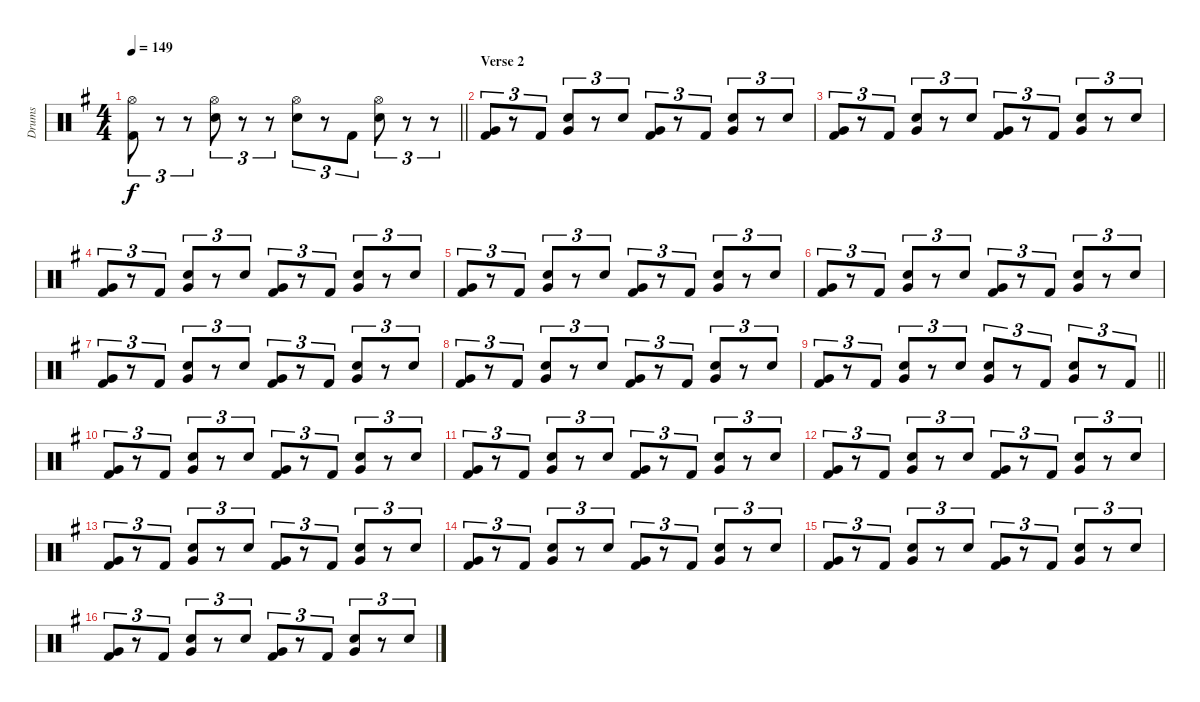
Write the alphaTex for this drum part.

\track ("Drums" "Drums") {instrument percussion}
\staff {score}
\articulation defaults
\ts (4 4)
\tempo 149
\clef neutral
\barLineRight lightlight
\ks g
("Hi-Hat (open)" "Kick (hit) 2").8{tu (3 2) dy f} r.8{tu (3 2)} r.8{tu (3 2)} ("Hi-Hat (open)" "Electric Snare (hit)").8{tu (3 2)} r.8{tu (3 2)} r.8{tu (3 2)} ("Hi-Hat (open)" "Electric Snare (hit)").8{tu (3 2)} r.8{tu (3 2)} "Kick (hit) 2".8{tu (3 2)} ("Hi-Hat (open)" "Electric Snare (hit)").8{tu (3 2)} r.8{tu (3 2)} r.8{tu (3 2)} |
\section ("" "Verse 2")
("Very Low Tom (hit)" "Kick (hit) 2").8{tu (3 2)} r.8{tu (3 2)} "Kick (hit) 2".8{tu (3 2)} ("Electric Snare (hit)" "Very Low Tom (hit)").8{tu (3 2)} r.8{tu (3 2)} "Electric Snare (hit)".8{tu (3 2)} ("Very Low Tom (hit)" "Kick (hit) 2").8{tu (3 2)} r.8{tu (3 2)} "Kick (hit) 2".8{tu (3 2)} ("Electric Snare (hit)" "Very Low Tom (hit)").8{tu (3 2)} r.8{tu (3 2)} "Electric Snare (hit)".8{tu (3 2)} |
("Very Low Tom (hit)" "Kick (hit) 2").8{tu (3 2)} r.8{tu (3 2)} "Kick (hit) 2".8{tu (3 2)} ("Electric Snare (hit)" "Very Low Tom (hit)").8{tu (3 2)} r.8{tu (3 2)} "Electric Snare (hit)".8{tu (3 2)} ("Very Low Tom (hit)" "Kick (hit) 2").8{tu (3 2)} r.8{tu (3 2)} "Kick (hit) 2".8{tu (3 2)} ("Electric Snare (hit)" "Very Low Tom (hit)").8{tu (3 2)} r.8{tu (3 2)} "Electric Snare (hit)".8{tu (3 2)} |
("Very Low Tom (hit)" "Kick (hit) 2").8{tu (3 2)} r.8{tu (3 2)} "Kick (hit) 2".8{tu (3 2)} ("Electric Snare (hit)" "Very Low Tom (hit)").8{tu (3 2)} r.8{tu (3 2)} "Electric Snare (hit)".8{tu (3 2)} ("Very Low Tom (hit)" "Kick (hit) 2").8{tu (3 2)} r.8{tu (3 2)} "Kick (hit) 2".8{tu (3 2)} ("Electric Snare (hit)" "Very Low Tom (hit)").8{tu (3 2)} r.8{tu (3 2)} "Electric Snare (hit)".8{tu (3 2)} |
("Very Low Tom (hit)" "Kick (hit) 2").8{tu (3 2)} r.8{tu (3 2)} "Kick (hit) 2".8{tu (3 2)} ("Electric Snare (hit)" "Very Low Tom (hit)").8{tu (3 2)} r.8{tu (3 2)} "Electric Snare (hit)".8{tu (3 2)} ("Very Low Tom (hit)" "Kick (hit) 2").8{tu (3 2)} r.8{tu (3 2)} "Kick (hit) 2".8{tu (3 2)} ("Electric Snare (hit)" "Very Low Tom (hit)").8{tu (3 2)} r.8{tu (3 2)} "Electric Snare (hit)".8{tu (3 2)} |
("Very Low Tom (hit)" "Kick (hit) 2").8{tu (3 2)} r.8{tu (3 2)} "Kick (hit) 2".8{tu (3 2)} ("Electric Snare (hit)" "Very Low Tom (hit)").8{tu (3 2)} r.8{tu (3 2)} "Electric Snare (hit)".8{tu (3 2)} ("Very Low Tom (hit)" "Kick (hit) 2").8{tu (3 2)} r.8{tu (3 2)} "Kick (hit) 2".8{tu (3 2)} ("Electric Snare (hit)" "Very Low Tom (hit)").8{tu (3 2)} r.8{tu (3 2)} "Electric Snare (hit)".8{tu (3 2)} |
("Very Low Tom (hit)" "Kick (hit) 2").8{tu (3 2)} r.8{tu (3 2)} "Kick (hit) 2".8{tu (3 2)} ("Electric Snare (hit)" "Very Low Tom (hit)").8{tu (3 2)} r.8{tu (3 2)} "Electric Snare (hit)".8{tu (3 2)} ("Very Low Tom (hit)" "Kick (hit) 2").8{tu (3 2)} r.8{tu (3 2)} "Kick (hit) 2".8{tu (3 2)} ("Electric Snare (hit)" "Very Low Tom (hit)").8{tu (3 2)} r.8{tu (3 2)} "Electric Snare (hit)".8{tu (3 2)} |
("Very Low Tom (hit)" "Kick (hit) 2").8{tu (3 2)} r.8{tu (3 2)} "Kick (hit) 2".8{tu (3 2)} ("Electric Snare (hit)" "Very Low Tom (hit)").8{tu (3 2)} r.8{tu (3 2)} "Electric Snare (hit)".8{tu (3 2)} ("Very Low Tom (hit)" "Kick (hit) 2").8{tu (3 2)} r.8{tu (3 2)} "Kick (hit) 2".8{tu (3 2)} ("Electric Snare (hit)" "Very Low Tom (hit)").8{tu (3 2)} r.8{tu (3 2)} "Electric Snare (hit)".8{tu (3 2)} |
\barLineRight lightlight
("Very Low Tom (hit)" "Kick (hit) 2").8{tu (3 2)} r.8{tu (3 2)} "Kick (hit) 2".8{tu (3 2)} ("Electric Snare (hit)" "Very Low Tom (hit)").8{tu (3 2)} r.8{tu (3 2)} "Electric Snare (hit)".8{tu (3 2)} ("Electric Snare (hit)" "Very Low Tom (hit)").8{tu (3 2)} r.8{tu (3 2)} "Kick (hit) 2".8{tu (3 2)} ("Electric Snare (hit)" "Very Low Tom (hit)").8{tu (3 2)} r.8{tu (3 2)} "Kick (hit) 2".8{tu (3 2)} |
("Very Low Tom (hit)" "Kick (hit) 2").8{tu (3 2)} r.8{tu (3 2)} "Kick (hit) 2".8{tu (3 2)} ("Electric Snare (hit)" "Very Low Tom (hit)").8{tu (3 2)} r.8{tu (3 2)} "Electric Snare (hit)".8{tu (3 2)} ("Very Low Tom (hit)" "Kick (hit) 2").8{tu (3 2)} r.8{tu (3 2)} "Kick (hit) 2".8{tu (3 2)} ("Electric Snare (hit)" "Very Low Tom (hit)").8{tu (3 2)} r.8{tu (3 2)} "Electric Snare (hit)".8{tu (3 2)} |
("Very Low Tom (hit)" "Kick (hit) 2").8{tu (3 2)} r.8{tu (3 2)} "Kick (hit) 2".8{tu (3 2)} ("Electric Snare (hit)" "Very Low Tom (hit)").8{tu (3 2)} r.8{tu (3 2)} "Electric Snare (hit)".8{tu (3 2)} ("Very Low Tom (hit)" "Kick (hit) 2").8{tu (3 2)} r.8{tu (3 2)} "Kick (hit) 2".8{tu (3 2)} ("Electric Snare (hit)" "Very Low Tom (hit)").8{tu (3 2)} r.8{tu (3 2)} "Electric Snare (hit)".8{tu (3 2)} |
("Very Low Tom (hit)" "Kick (hit) 2").8{tu (3 2)} r.8{tu (3 2)} "Kick (hit) 2".8{tu (3 2)} ("Electric Snare (hit)" "Very Low Tom (hit)").8{tu (3 2)} r.8{tu (3 2)} "Electric Snare (hit)".8{tu (3 2)} ("Very Low Tom (hit)" "Kick (hit) 2").8{tu (3 2)} r.8{tu (3 2)} "Kick (hit) 2".8{tu (3 2)} ("Electric Snare (hit)" "Very Low Tom (hit)").8{tu (3 2)} r.8{tu (3 2)} "Electric Snare (hit)".8{tu (3 2)} |
("Very Low Tom (hit)" "Kick (hit) 2").8{tu (3 2)} r.8{tu (3 2)} "Kick (hit) 2".8{tu (3 2)} ("Electric Snare (hit)" "Very Low Tom (hit)").8{tu (3 2)} r.8{tu (3 2)} "Electric Snare (hit)".8{tu (3 2)} ("Very Low Tom (hit)" "Kick (hit) 2").8{tu (3 2)} r.8{tu (3 2)} "Kick (hit) 2".8{tu (3 2)} ("Electric Snare (hit)" "Very Low Tom (hit)").8{tu (3 2)} r.8{tu (3 2)} "Electric Snare (hit)".8{tu (3 2)} |
("Very Low Tom (hit)" "Kick (hit) 2").8{tu (3 2)} r.8{tu (3 2)} "Kick (hit) 2".8{tu (3 2)} ("Electric Snare (hit)" "Very Low Tom (hit)").8{tu (3 2)} r.8{tu (3 2)} "Electric Snare (hit)".8{tu (3 2)} ("Very Low Tom (hit)" "Kick (hit) 2").8{tu (3 2)} r.8{tu (3 2)} "Kick (hit) 2".8{tu (3 2)} ("Electric Snare (hit)" "Very Low Tom (hit)").8{tu (3 2)} r.8{tu (3 2)} "Electric Snare (hit)".8{tu (3 2)} |
("Very Low Tom (hit)" "Kick (hit) 2").8{tu (3 2)} r.8{tu (3 2)} "Kick (hit) 2".8{tu (3 2)} ("Electric Snare (hit)" "Very Low Tom (hit)").8{tu (3 2)} r.8{tu (3 2)} "Electric Snare (hit)".8{tu (3 2)} ("Very Low Tom (hit)" "Kick (hit) 2").8{tu (3 2)} r.8{tu (3 2)} "Kick (hit) 2".8{tu (3 2)} ("Electric Snare (hit)" "Very Low Tom (hit)").8{tu (3 2)} r.8{tu (3 2)} "Electric Snare (hit)".8{tu (3 2)} |
("Very Low Tom (hit)" "Kick (hit) 2").8{tu (3 2)} r.8{tu (3 2)} "Kick (hit) 2".8{tu (3 2)} ("Electric Snare (hit)" "Very Low Tom (hit)").8{tu (3 2)} r.8{tu (3 2)} "Electric Snare (hit)".8{tu (3 2)} ("Very Low Tom (hit)" "Kick (hit) 2").8{tu (3 2)} r.8{tu (3 2)} "Kick (hit) 2".8{tu (3 2)} ("Electric Snare (hit)" "Very Low Tom (hit)").8{tu (3 2)} r.8{tu (3 2)} "Electric Snare (hit)".8{tu (3 2)}
